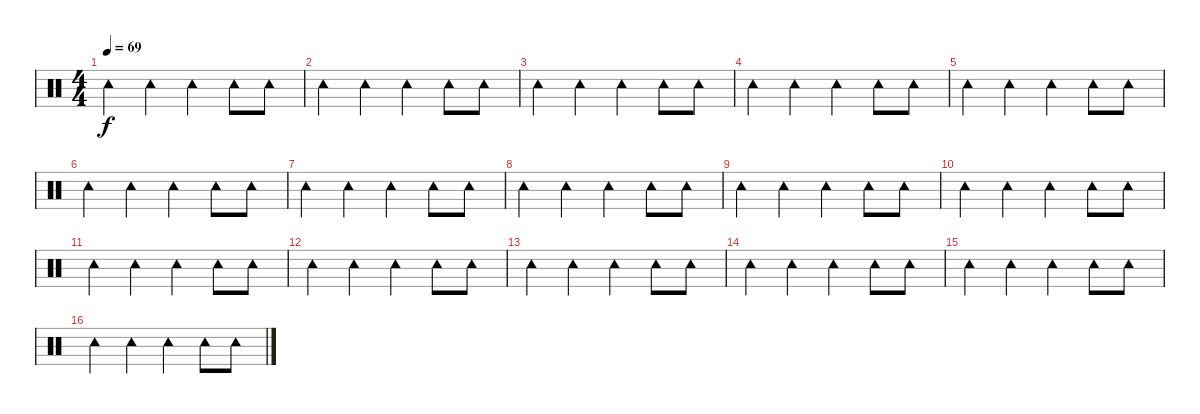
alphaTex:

\track "" {instrument percussion}
\staff {score}
\articulation defaults
\ts (4 4)
\tempo 69
\clef neutral
\ks c "Tambourine (hit)".4{dy f} "Tambourine (hit)".4 "Tambourine (hit)".4 "Tambourine (hit)".8 "Tambourine (hit)".8
|
"Tambourine (hit)".4 "Tambourine (hit)".4 "Tambourine (hit)".4 "Tambourine (hit)".8 "Tambourine (hit)".8 |
"Tambourine (hit)".4 "Tambourine (hit)".4 "Tambourine (hit)".4 "Tambourine (hit)".8 "Tambourine (hit)".8 |
"Tambourine (hit)".4 "Tambourine (hit)".4 "Tambourine (hit)".4 "Tambourine (hit)".8 "Tambourine (hit)".8 |
"Tambourine (hit)".4 "Tambourine (hit)".4 "Tambourine (hit)".4 "Tambourine (hit)".8 "Tambourine (hit)".8 |
"Tambourine (hit)".4 "Tambourine (hit)".4 "Tambourine (hit)".4 "Tambourine (hit)".8 "Tambourine (hit)".8 |
"Tambourine (hit)".4 "Tambourine (hit)".4 "Tambourine (hit)".4 "Tambourine (hit)".8 "Tambourine (hit)".8 |
"Tambourine (hit)".4 "Tambourine (hit)".4 "Tambourine (hit)".4 "Tambourine (hit)".8 "Tambourine (hit)".8 |
"Tambourine (hit)".4 "Tambourine (hit)".4 "Tambourine (hit)".4 "Tambourine (hit)".8 "Tambourine (hit)".8 |
"Tambourine (hit)".4 "Tambourine (hit)".4 "Tambourine (hit)".4 "Tambourine (hit)".8 "Tambourine (hit)".8 |
"Tambourine (hit)".4 "Tambourine (hit)".4 "Tambourine (hit)".4 "Tambourine (hit)".8 "Tambourine (hit)".8 |
"Tambourine (hit)".4 "Tambourine (hit)".4 "Tambourine (hit)".4 "Tambourine (hit)".8 "Tambourine (hit)".8 |
"Tambourine (hit)".4 "Tambourine (hit)".4 "Tambourine (hit)".4 "Tambourine (hit)".8 "Tambourine (hit)".8 |
"Tambourine (hit)".4 "Tambourine (hit)".4 "Tambourine (hit)".4 "Tambourine (hit)".8 "Tambourine (hit)".8 |
"Tambourine (hit)".4 "Tambourine (hit)".4 "Tambourine (hit)".4 "Tambourine (hit)".8 "Tambourine (hit)".8 |
"Tambourine (hit)".4 "Tambourine (hit)".4 "Tambourine (hit)".4 "Tambourine (hit)".8 "Tambourine (hit)".8
